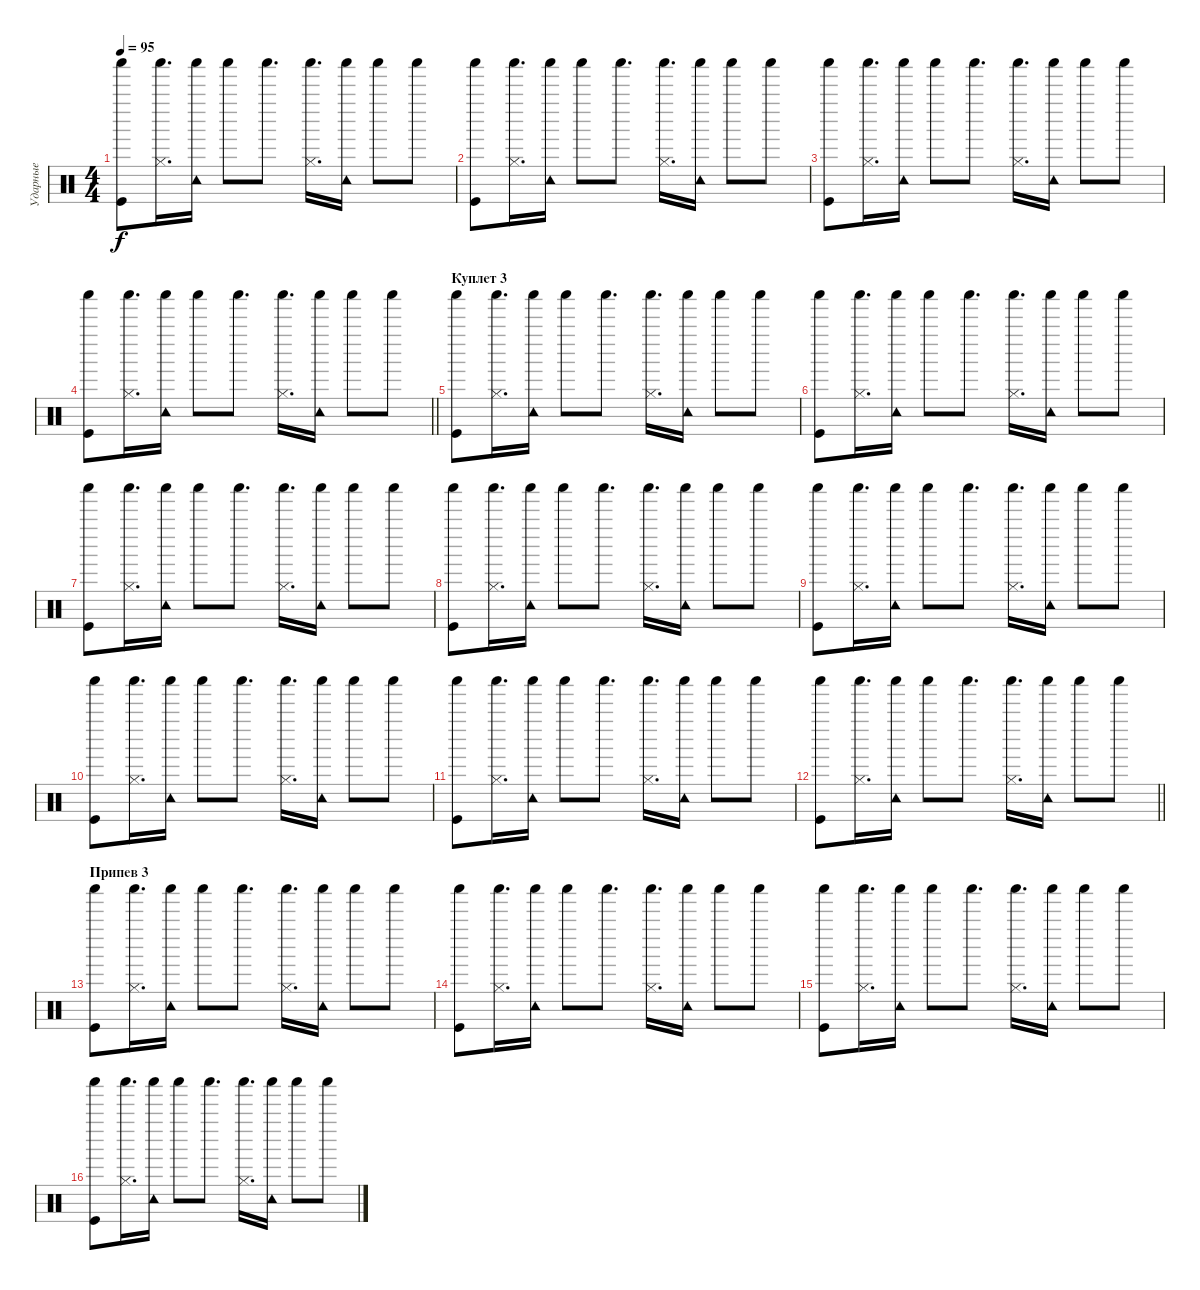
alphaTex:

\track ("Ударные" "Ударные") {instrument percussion}
\staff {score}
\articulation defaults
\ts (4 4)
\tempo 95
\clef neutral
\ks c
("Kick (hit)" "Shaker (hit)").8{dy f} ("Hi-Hat (closed)" "Shaker (hit)").16{d} ("Tambourine (hit)" "Shaker (hit)").16 "Shaker (hit)".8 "Shaker (hit)".8{d} ("Hi-Hat (closed)" "Shaker (hit)").16{d} ("Tambourine (hit)" "Shaker (hit)").16 "Shaker (hit)".8 "Shaker (hit)".8 |
("Kick (hit)" "Shaker (hit)").8 ("Hi-Hat (closed)" "Shaker (hit)").16{d} ("Tambourine (hit)" "Shaker (hit)").16 "Shaker (hit)".8 "Shaker (hit)".8{d} ("Hi-Hat (closed)" "Shaker (hit)").16{d} ("Tambourine (hit)" "Shaker (hit)").16 "Shaker (hit)".8 "Shaker (hit)".8 |
("Kick (hit)" "Shaker (hit)").8 ("Hi-Hat (closed)" "Shaker (hit)").16{d} ("Tambourine (hit)" "Shaker (hit)").16 "Shaker (hit)".8 "Shaker (hit)".8{d} ("Hi-Hat (closed)" "Shaker (hit)").16{d} ("Tambourine (hit)" "Shaker (hit)").16 "Shaker (hit)".8 "Shaker (hit)".8 |
\barLineRight lightlight
("Kick (hit)" "Shaker (hit)").8 ("Hi-Hat (closed)" "Shaker (hit)").16{d} ("Tambourine (hit)" "Shaker (hit)").16 "Shaker (hit)".8 "Shaker (hit)".8{d} ("Hi-Hat (closed)" "Shaker (hit)").16{d} ("Tambourine (hit)" "Shaker (hit)").16 "Shaker (hit)".8 "Shaker (hit)".8 |
\section ("" "Куплет 3")
("Kick (hit)" "Shaker (hit)").8 ("Hi-Hat (closed)" "Shaker (hit)").16{d} ("Tambourine (hit)" "Shaker (hit)").16 "Shaker (hit)".8 "Shaker (hit)".8{d} ("Hi-Hat (closed)" "Shaker (hit)").16{d} ("Tambourine (hit)" "Shaker (hit)").16 "Shaker (hit)".8 "Shaker (hit)".8 |
("Kick (hit)" "Shaker (hit)").8 ("Hi-Hat (closed)" "Shaker (hit)").16{d} ("Tambourine (hit)" "Shaker (hit)").16 "Shaker (hit)".8 "Shaker (hit)".8{d} ("Hi-Hat (closed)" "Shaker (hit)").16{d} ("Tambourine (hit)" "Shaker (hit)").16 "Shaker (hit)".8 "Shaker (hit)".8 |
("Kick (hit)" "Shaker (hit)").8 ("Hi-Hat (closed)" "Shaker (hit)").16{d} ("Tambourine (hit)" "Shaker (hit)").16 "Shaker (hit)".8 "Shaker (hit)".8{d} ("Hi-Hat (closed)" "Shaker (hit)").16{d} ("Tambourine (hit)" "Shaker (hit)").16 "Shaker (hit)".8 "Shaker (hit)".8 |
("Kick (hit)" "Shaker (hit)").8 ("Hi-Hat (closed)" "Shaker (hit)").16{d} ("Tambourine (hit)" "Shaker (hit)").16 "Shaker (hit)".8 "Shaker (hit)".8{d} ("Hi-Hat (closed)" "Shaker (hit)").16{d} ("Tambourine (hit)" "Shaker (hit)").16 "Shaker (hit)".8 "Shaker (hit)".8 |
("Kick (hit)" "Shaker (hit)").8 ("Hi-Hat (closed)" "Shaker (hit)").16{d} ("Tambourine (hit)" "Shaker (hit)").16 "Shaker (hit)".8 "Shaker (hit)".8{d} ("Hi-Hat (closed)" "Shaker (hit)").16{d} ("Tambourine (hit)" "Shaker (hit)").16 "Shaker (hit)".8 "Shaker (hit)".8 |
("Kick (hit)" "Shaker (hit)").8 ("Hi-Hat (closed)" "Shaker (hit)").16{d} ("Tambourine (hit)" "Shaker (hit)").16 "Shaker (hit)".8 "Shaker (hit)".8{d} ("Hi-Hat (closed)" "Shaker (hit)").16{d} ("Tambourine (hit)" "Shaker (hit)").16 "Shaker (hit)".8 "Shaker (hit)".8 |
("Kick (hit)" "Shaker (hit)").8 ("Hi-Hat (closed)" "Shaker (hit)").16{d} ("Tambourine (hit)" "Shaker (hit)").16 "Shaker (hit)".8 "Shaker (hit)".8{d} ("Hi-Hat (closed)" "Shaker (hit)").16{d} ("Tambourine (hit)" "Shaker (hit)").16 "Shaker (hit)".8 "Shaker (hit)".8 |
\barLineRight lightlight
("Kick (hit)" "Shaker (hit)").8 ("Hi-Hat (closed)" "Shaker (hit)").16{d} ("Tambourine (hit)" "Shaker (hit)").16 "Shaker (hit)".8 "Shaker (hit)".8{d} ("Hi-Hat (closed)" "Shaker (hit)").16{d} ("Tambourine (hit)" "Shaker (hit)").16 "Shaker (hit)".8 "Shaker (hit)".8 |
\section ("" "Припев 3")
("Kick (hit)" "Shaker (hit)").8 ("Hi-Hat (closed)" "Shaker (hit)").16{d} ("Tambourine (hit)" "Shaker (hit)").16 "Shaker (hit)".8 "Shaker (hit)".8{d} ("Hi-Hat (closed)" "Shaker (hit)").16{d} ("Tambourine (hit)" "Shaker (hit)").16 "Shaker (hit)".8 "Shaker (hit)".8 |
("Kick (hit)" "Shaker (hit)").8 ("Hi-Hat (closed)" "Shaker (hit)").16{d} ("Tambourine (hit)" "Shaker (hit)").16 "Shaker (hit)".8 "Shaker (hit)".8{d} ("Hi-Hat (closed)" "Shaker (hit)").16{d} ("Tambourine (hit)" "Shaker (hit)").16 "Shaker (hit)".8 "Shaker (hit)".8 |
("Kick (hit)" "Shaker (hit)").8 ("Hi-Hat (closed)" "Shaker (hit)").16{d} ("Tambourine (hit)" "Shaker (hit)").16 "Shaker (hit)".8 "Shaker (hit)".8{d} ("Hi-Hat (closed)" "Shaker (hit)").16{d} ("Tambourine (hit)" "Shaker (hit)").16 "Shaker (hit)".8 "Shaker (hit)".8 |
("Kick (hit)" "Shaker (hit)").8 ("Hi-Hat (closed)" "Shaker (hit)").16{d} ("Tambourine (hit)" "Shaker (hit)").16 "Shaker (hit)".8 "Shaker (hit)".8{d} ("Hi-Hat (closed)" "Shaker (hit)").16{d} ("Tambourine (hit)" "Shaker (hit)").16 "Shaker (hit)".8 "Shaker (hit)".8
